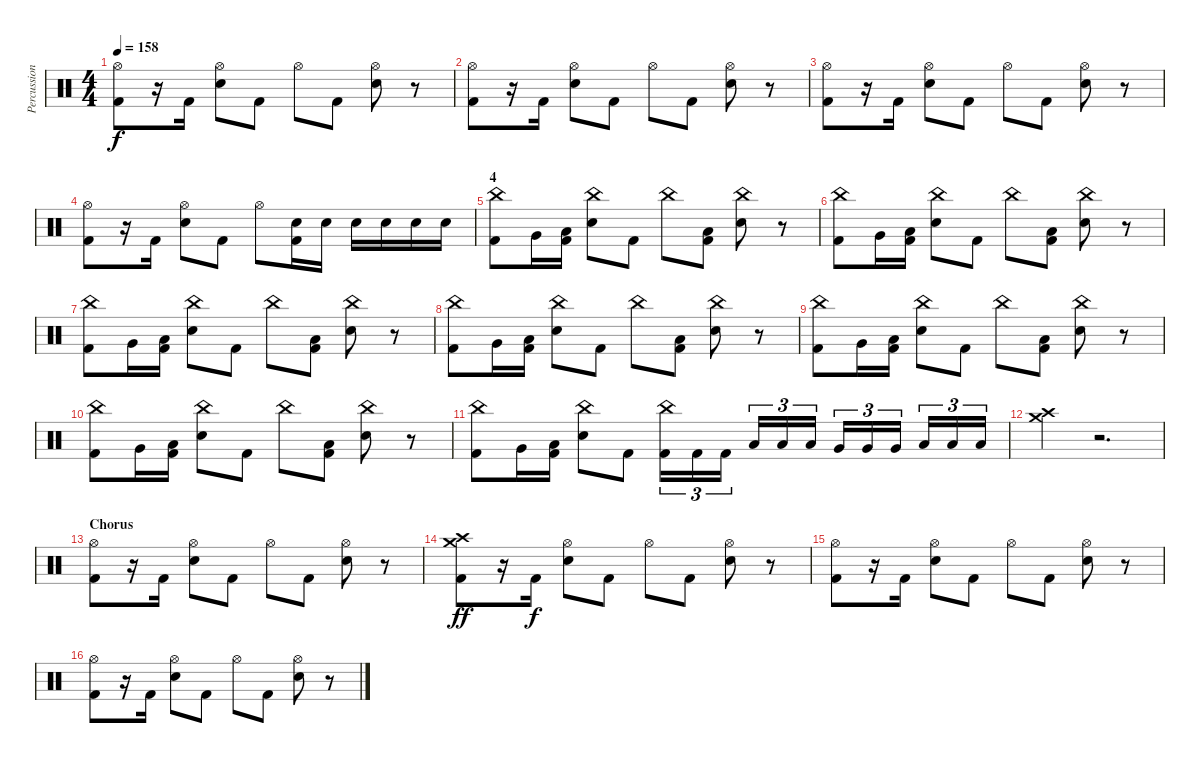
\track ("Percussions" "Percussion") {instrument percussion}
\staff {score}
\articulation defaults
\ts (4 4)
\tempo 158
\clef neutral
\ks c
("Hi-Hat (open)" "Kick (hit) 2").8{dy f} r.16 "Kick (hit) 2".16 ("Hi-Hat (open)" "Electric Snare (hit)").8 "Kick (hit) 2".8 "Hi-Hat (open)".8 "Kick (hit) 2".8 ("Hi-Hat (open)" "Electric Snare (hit)").8 r.8 |
("Hi-Hat (open)" "Kick (hit) 2").8 r.16 "Kick (hit) 2".16 ("Hi-Hat (open)" "Electric Snare (hit)").8 "Kick (hit) 2".8 "Hi-Hat (open)".8 "Kick (hit) 2".8 ("Hi-Hat (open)" "Electric Snare (hit)").8 r.8 |
("Hi-Hat (open)" "Kick (hit) 2").8 r.16 "Kick (hit) 2".16 ("Hi-Hat (open)" "Electric Snare (hit)").8 "Kick (hit) 2".8 "Hi-Hat (open)".8 "Kick (hit) 2".8 ("Hi-Hat (open)" "Electric Snare (hit)").8 r.8 |
("Hi-Hat (open)" "Kick (hit) 2").8 r.16 "Kick (hit) 2".16 ("Hi-Hat (open)" "Electric Snare (hit)").8 "Kick (hit) 2".8 "Hi-Hat (open)".8 ("Electric Snare (hit)" "Kick (hit) 2").16 "Electric Snare (hit)".16 "Electric Snare (hit)".16 "Electric Snare (hit)".16 "Electric Snare (hit)".16 "Electric Snare (hit)".16 |
\section ("" "4")
("China (hit)" "Kick (hit) 2").8 "Very Low Tom (hit)".16 ("Low Floor Tom (hit)" "Kick (hit) 2").16 ("China (hit)" "Electric Snare (hit)").8 "Kick (hit) 2".8 "China (hit)".8 ("Low Floor Tom (hit)" "Kick (hit) 2").8 ("China (hit)" "Electric Snare (hit)").8 r.8 |
("China (hit)" "Kick (hit) 2").8 "Very Low Tom (hit)".16 ("Low Floor Tom (hit)" "Kick (hit) 2").16 ("China (hit)" "Electric Snare (hit)").8 "Kick (hit) 2".8 "China (hit)".8 ("Low Floor Tom (hit)" "Kick (hit) 2").8 ("China (hit)" "Electric Snare (hit)").8 r.8 |
("China (hit)" "Kick (hit) 2").8 "Very Low Tom (hit)".16 ("Low Floor Tom (hit)" "Kick (hit) 2").16 ("China (hit)" "Electric Snare (hit)").8 "Kick (hit) 2".8 "China (hit)".8 ("Low Floor Tom (hit)" "Kick (hit) 2").8 ("China (hit)" "Electric Snare (hit)").8 r.8 |
("China (hit)" "Kick (hit) 2").8 "Very Low Tom (hit)".16 ("Low Floor Tom (hit)" "Kick (hit) 2").16 ("China (hit)" "Electric Snare (hit)").8 "Kick (hit) 2".8 "China (hit)".8 ("Low Floor Tom (hit)" "Kick (hit) 2").8 ("China (hit)" "Electric Snare (hit)").8 r.8 |
("China (hit)" "Kick (hit) 2").8 "Very Low Tom (hit)".16 ("Low Floor Tom (hit)" "Kick (hit) 2").16 ("China (hit)" "Electric Snare (hit)").8 "Kick (hit) 2".8 "China (hit)".8 ("Low Floor Tom (hit)" "Kick (hit) 2").8 ("China (hit)" "Electric Snare (hit)").8 r.8 |
("China (hit)" "Kick (hit) 2").8 "Very Low Tom (hit)".16 ("Low Floor Tom (hit)" "Kick (hit) 2").16 ("China (hit)" "Electric Snare (hit)").8 "Kick (hit) 2".8 "China (hit)".8 ("Low Floor Tom (hit)" "Kick (hit) 2").8 ("China (hit)" "Electric Snare (hit)").8 r.8 |
("China (hit)" "Kick (hit) 2").8 "Very Low Tom (hit)".16 ("Low Floor Tom (hit)" "Kick (hit) 2").16 ("China (hit)" "Electric Snare (hit)").8 "Kick (hit) 2".8 ("China (hit)" "Kick (hit) 2").16{tu (3 2)} "Kick (hit) 2".16{tu (3 2)} "Kick (hit) 2".16{tu (3 2)} "Low Tom (hit)".16{tu (3 2)} "Low Tom (hit)".16{tu (3 2)} "Low Tom (hit)".16{tu (3 2)} "Very Low Tom (hit)".16{tu (3 2)} "Very Low Tom (hit)".16{tu (3 2)} "Very Low Tom (hit)".16{tu (3 2)} "Low Floor Tom (hit)".16{tu (3 2)} "Low Floor Tom (hit)".16{tu (3 2)} "Low Floor Tom (hit)".16{tu (3 2)} |
("Crash high (hit)" "Crash medium (hit)").4 r.2{d} |
\section ("" "Chorus")
("Hi-Hat (open)" "Kick (hit) 2").8 r.16 "Kick (hit) 2".16 ("Hi-Hat (open)" "Electric Snare (hit)").8 "Kick (hit) 2".8 "Hi-Hat (open)".8 "Kick (hit) 2".8 ("Hi-Hat (open)" "Electric Snare (hit)").8 r.8 |
("Crash high (hit)" "Crash medium (hit)" "Kick (hit) 2").8{dy ff} r.16 "Kick (hit) 2".16{dy f} ("Hi-Hat (open)" "Electric Snare (hit)").8 "Kick (hit) 2".8 "Hi-Hat (open)".8 "Kick (hit) 2".8 ("Hi-Hat (open)" "Electric Snare (hit)").8 r.8 |
("Hi-Hat (open)" "Kick (hit) 2").8 r.16 "Kick (hit) 2".16 ("Hi-Hat (open)" "Electric Snare (hit)").8 "Kick (hit) 2".8 "Hi-Hat (open)".8 "Kick (hit) 2".8 ("Hi-Hat (open)" "Electric Snare (hit)").8 r.8 |
("Hi-Hat (open)" "Kick (hit) 2").8 r.16 "Kick (hit) 2".16 ("Hi-Hat (open)" "Electric Snare (hit)").8 "Kick (hit) 2".8 "Hi-Hat (open)".8 "Kick (hit) 2".8 ("Hi-Hat (open)" "Electric Snare (hit)").8 r.8
